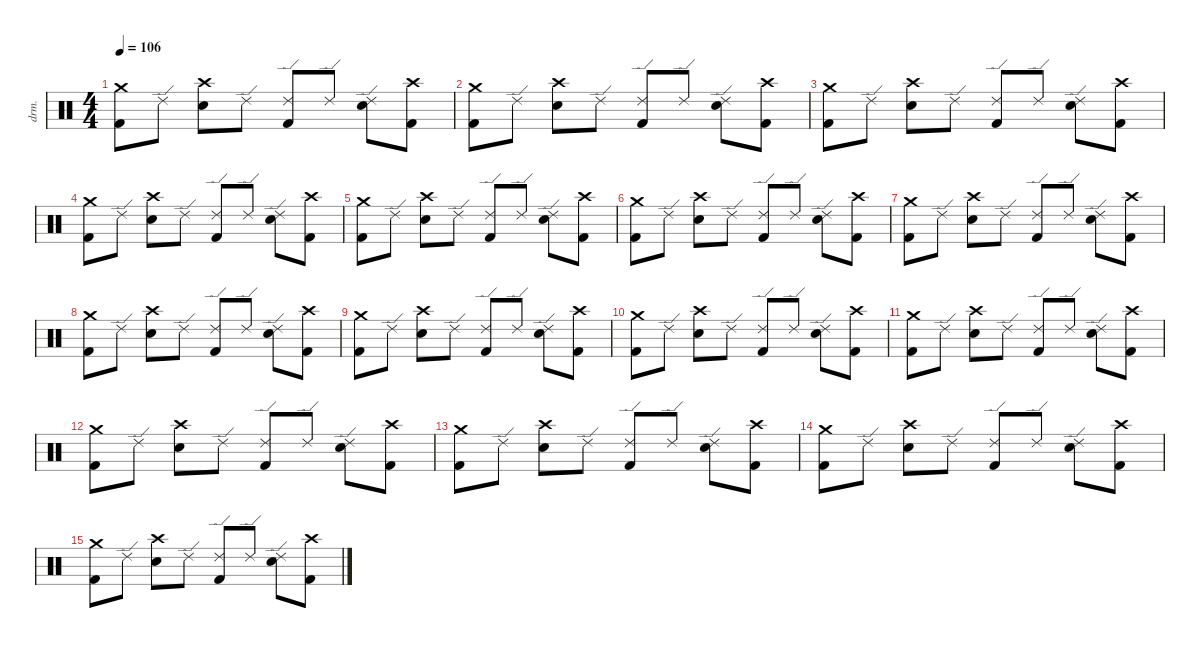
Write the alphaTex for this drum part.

\defaultSystemsLayout 4
\hideDynamics
\bracketExtendMode nobrackets
\track ("Lee Kerslake" "drm.") {solo instrument percussion}
\staff {score}
\articulation defaults
\ts (4 4)
\tempo 106
\clef neutral
\ks c
("Crash medium (hit)" "Kick (hit) 2").8{dy f} "Ride (edge) 2".8 ("Crash high (hit)" "Snare (hit) 2").8 "Ride (edge) 2".8 ("Ride (edge) 2" "Kick (hit) 2").8 "Ride (edge) 2".8 ("Ride (edge) 2" "Snare (hit) 2").8 ("Crash high (hit)" "Kick (hit) 2").8 |
("Crash medium (hit)" "Kick (hit) 2").8 "Ride (edge) 2".8 ("Crash high (hit)" "Snare (hit) 2").8 "Ride (edge) 2".8 ("Ride (edge) 2" "Kick (hit) 2").8 "Ride (edge) 2".8 ("Ride (edge) 2" "Snare (hit) 2").8 ("Crash high (hit)" "Kick (hit) 2").8 |
("Crash medium (hit)" "Kick (hit) 2").8 "Ride (edge) 2".8 ("Crash high (hit)" "Snare (hit) 2").8 "Ride (edge) 2".8 ("Ride (edge) 2" "Kick (hit) 2").8 "Ride (edge) 2".8 ("Ride (edge) 2" "Snare (hit) 2").8 ("Crash high (hit)" "Kick (hit) 2").8 |
("Crash medium (hit)" "Kick (hit) 2").8 "Ride (edge) 2".8 ("Crash high (hit)" "Snare (hit) 2").8 "Ride (edge) 2".8 ("Ride (edge) 2" "Kick (hit) 2").8 "Ride (edge) 2".8 ("Ride (edge) 2" "Snare (hit) 2").8 ("Crash high (hit)" "Kick (hit) 2").8 |
("Crash medium (hit)" "Kick (hit) 2").8 "Ride (edge) 2".8 ("Crash high (hit)" "Snare (hit) 2").8 "Ride (edge) 2".8 ("Ride (edge) 2" "Kick (hit) 2").8 "Ride (edge) 2".8 ("Ride (edge) 2" "Snare (hit) 2").8 ("Crash high (hit)" "Kick (hit) 2").8 |
("Crash medium (hit)" "Kick (hit) 2").8 "Ride (edge) 2".8 ("Crash high (hit)" "Snare (hit) 2").8 "Ride (edge) 2".8 ("Ride (edge) 2" "Kick (hit) 2").8 "Ride (edge) 2".8 ("Ride (edge) 2" "Snare (hit) 2").8 ("Crash high (hit)" "Kick (hit) 2").8 |
("Crash medium (hit)" "Kick (hit) 2").8 "Ride (edge) 2".8 ("Crash high (hit)" "Snare (hit) 2").8 "Ride (edge) 2".8 ("Ride (edge) 2" "Kick (hit) 2").8 "Ride (edge) 2".8 ("Ride (edge) 2" "Snare (hit) 2").8 ("Crash high (hit)" "Kick (hit) 2").8 |
("Crash medium (hit)" "Kick (hit) 2").8 "Ride (edge) 2".8 ("Crash high (hit)" "Snare (hit) 2").8 "Ride (edge) 2".8 ("Ride (edge) 2" "Kick (hit) 2").8 "Ride (edge) 2".8 ("Ride (edge) 2" "Snare (hit) 2").8 ("Crash high (hit)" "Kick (hit) 2").8 |
("Crash medium (hit)" "Kick (hit) 2").8 "Ride (edge) 2".8 ("Crash high (hit)" "Snare (hit) 2").8 "Ride (edge) 2".8 ("Ride (edge) 2" "Kick (hit) 2").8 "Ride (edge) 2".8 ("Ride (edge) 2" "Snare (hit) 2").8 ("Crash high (hit)" "Kick (hit) 2").8 |
("Crash medium (hit)" "Kick (hit) 2").8 "Ride (edge) 2".8 ("Crash high (hit)" "Snare (hit) 2").8 "Ride (edge) 2".8 ("Ride (edge) 2" "Kick (hit) 2").8 "Ride (edge) 2".8 ("Ride (edge) 2" "Snare (hit) 2").8 ("Crash high (hit)" "Kick (hit) 2").8 |
("Crash medium (hit)" "Kick (hit) 2").8 "Ride (edge) 2".8 ("Crash high (hit)" "Snare (hit) 2").8 "Ride (edge) 2".8 ("Ride (edge) 2" "Kick (hit) 2").8 "Ride (edge) 2".8 ("Ride (edge) 2" "Snare (hit) 2").8 ("Crash high (hit)" "Kick (hit) 2").8 |
("Crash medium (hit)" "Kick (hit) 2").8 "Ride (edge) 2".8 ("Crash high (hit)" "Snare (hit) 2").8 "Ride (edge) 2".8 ("Ride (edge) 2" "Kick (hit) 2").8 "Ride (edge) 2".8 ("Ride (edge) 2" "Snare (hit) 2").8 ("Crash high (hit)" "Kick (hit) 2").8 |
("Crash medium (hit)" "Kick (hit) 2").8 "Ride (edge) 2".8 ("Crash high (hit)" "Snare (hit) 2").8 "Ride (edge) 2".8 ("Ride (edge) 2" "Kick (hit) 2").8 "Ride (edge) 2".8 ("Ride (edge) 2" "Snare (hit) 2").8 ("Crash high (hit)" "Kick (hit) 2").8 |
("Crash medium (hit)" "Kick (hit) 2").8 "Ride (edge) 2".8 ("Crash high (hit)" "Snare (hit) 2").8 "Ride (edge) 2".8 ("Ride (edge) 2" "Kick (hit) 2").8 "Ride (edge) 2".8 ("Ride (edge) 2" "Snare (hit) 2").8 ("Crash high (hit)" "Kick (hit) 2").8 |
("Crash medium (hit)" "Kick (hit) 2").8 "Ride (edge) 2".8 ("Crash high (hit)" "Snare (hit) 2").8 "Ride (edge) 2".8 ("Ride (edge) 2" "Kick (hit) 2").8 "Ride (edge) 2".8 ("Ride (edge) 2" "Snare (hit) 2").8 ("Crash high (hit)" "Kick (hit) 2").8
